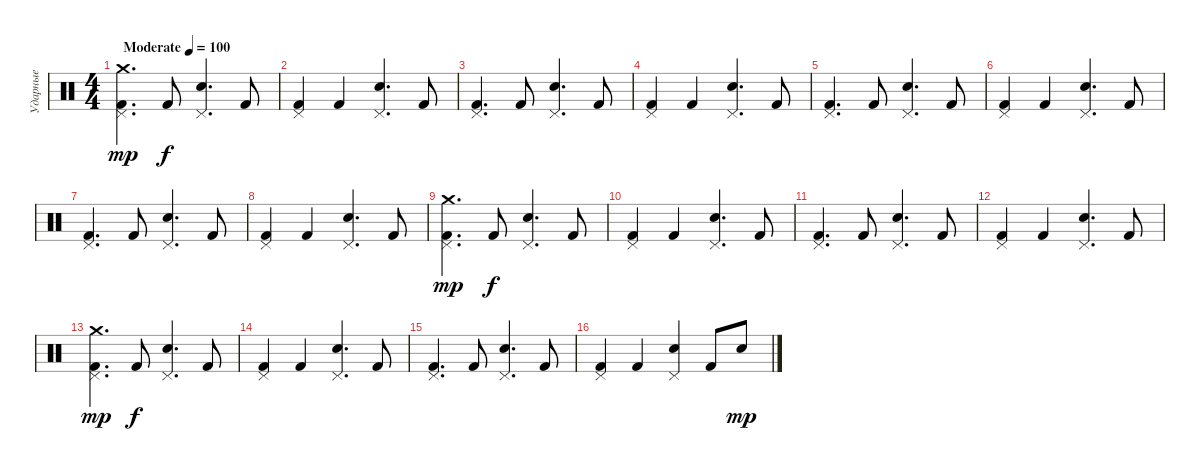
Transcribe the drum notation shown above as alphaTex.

\track ("Ударные" "Ударные") {instrument percussion}
\staff {score}
\articulation defaults
\ts (4 4)
\tempo (100 "Moderate")
\clef neutral
\ks c
("Pedal Hi-Hat (hit)" "Kick (hit) 2" "Crash medium (hit)").4{d dy mp} "Kick (hit) 2".8{dy f} ("Pedal Hi-Hat (hit)" "Snare (hit) 2").4{d} "Kick (hit) 2".8 |
("Pedal Hi-Hat (hit)" "Kick (hit) 2").4 "Kick (hit) 2".4 ("Pedal Hi-Hat (hit)" "Snare (hit) 2").4{d} "Kick (hit) 2".8 |
("Pedal Hi-Hat (hit)" "Kick (hit) 2").4{d} "Kick (hit) 2".8 ("Pedal Hi-Hat (hit)" "Snare (hit) 2").4{d} "Kick (hit) 2".8 |
("Pedal Hi-Hat (hit)" "Kick (hit) 2").4 "Kick (hit) 2".4 ("Pedal Hi-Hat (hit)" "Snare (hit) 2").4{d} "Kick (hit) 2".8 |
("Pedal Hi-Hat (hit)" "Kick (hit) 2").4{d} "Kick (hit) 2".8 ("Pedal Hi-Hat (hit)" "Snare (hit) 2").4{d} "Kick (hit) 2".8 |
("Pedal Hi-Hat (hit)" "Kick (hit) 2").4 "Kick (hit) 2".4 ("Pedal Hi-Hat (hit)" "Snare (hit) 2").4{d} "Kick (hit) 2".8 |
("Pedal Hi-Hat (hit)" "Kick (hit) 2").4{d} "Kick (hit) 2".8 ("Pedal Hi-Hat (hit)" "Snare (hit) 2").4{d} "Kick (hit) 2".8 |
("Pedal Hi-Hat (hit)" "Kick (hit) 2").4 "Kick (hit) 2".4 ("Pedal Hi-Hat (hit)" "Snare (hit) 2").4{d} "Kick (hit) 2".8 |
("Pedal Hi-Hat (hit)" "Kick (hit) 2" "Crash medium (hit)").4{d dy mp} "Kick (hit) 2".8{dy f} ("Pedal Hi-Hat (hit)" "Snare (hit) 2").4{d} "Kick (hit) 2".8 |
("Pedal Hi-Hat (hit)" "Kick (hit) 2").4 "Kick (hit) 2".4 ("Pedal Hi-Hat (hit)" "Snare (hit) 2").4{d} "Kick (hit) 2".8 |
("Pedal Hi-Hat (hit)" "Kick (hit) 2").4{d} "Kick (hit) 2".8 ("Pedal Hi-Hat (hit)" "Snare (hit) 2").4{d} "Kick (hit) 2".8 |
("Pedal Hi-Hat (hit)" "Kick (hit) 2").4 "Kick (hit) 2".4 ("Pedal Hi-Hat (hit)" "Snare (hit) 2").4{d} "Kick (hit) 2".8 |
("Pedal Hi-Hat (hit)" "Kick (hit) 2" "Crash medium (hit)").4{d dy mp} "Kick (hit) 2".8{dy f} ("Pedal Hi-Hat (hit)" "Snare (hit) 2").4{d} "Kick (hit) 2".8 |
("Pedal Hi-Hat (hit)" "Kick (hit) 2").4 "Kick (hit) 2".4 ("Pedal Hi-Hat (hit)" "Snare (hit) 2").4{d} "Kick (hit) 2".8 |
("Pedal Hi-Hat (hit)" "Kick (hit) 2").4{d} "Kick (hit) 2".8 ("Pedal Hi-Hat (hit)" "Snare (hit) 2").4{d} "Kick (hit) 2".8 |
("Pedal Hi-Hat (hit)" "Kick (hit) 2").4 "Kick (hit) 2".4 ("Pedal Hi-Hat (hit)" "Snare (hit) 2").4 "Kick (hit) 2".8 "Snare (hit) 2".8{dy mp}
